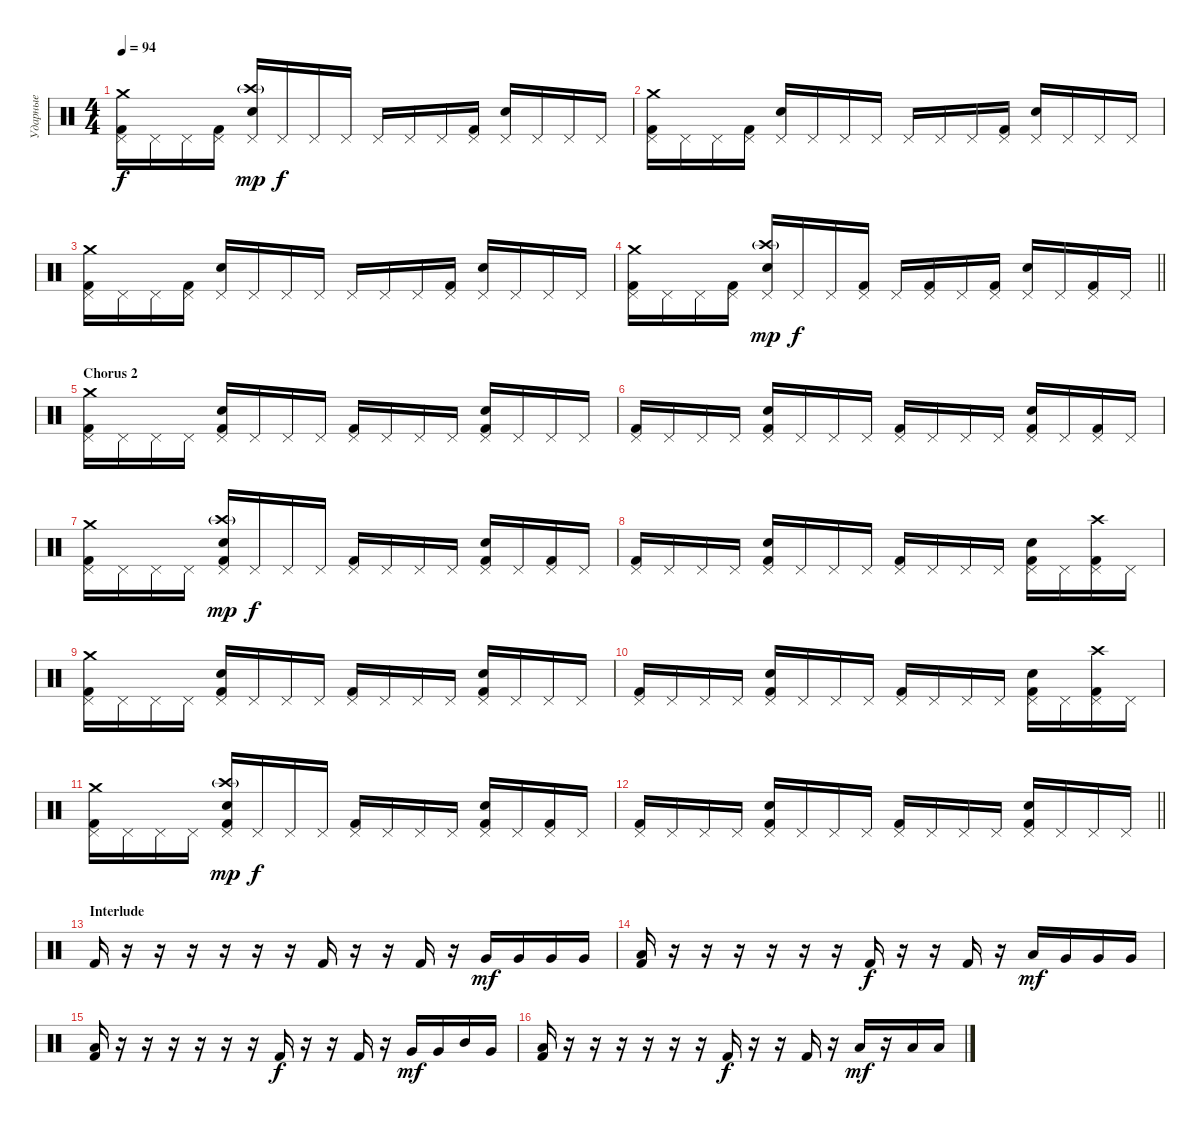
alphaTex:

\track ("Ударные" "Ударные") {instrument percussion}
\staff {score}
\articulation defaults
\ts (4 4)
\tempo 94
\clef neutral
\ks c
("Crash medium (hit)" "Pedal Hi-Hat (hit)" "Kick (hit) 2").16{dy f} "Pedal Hi-Hat (hit)".16 "Pedal Hi-Hat (hit)".16 ("Pedal Hi-Hat (hit)" "Kick (hit) 2").16 ("Crash high (hit)"{g} "Pedal Hi-Hat (hit)" "Snare (hit) 2").16{dy mp} "Pedal Hi-Hat (hit)".16{dy f} "Pedal Hi-Hat (hit)".16 "Pedal Hi-Hat (hit)".16 "Pedal Hi-Hat (hit)".16 "Pedal Hi-Hat (hit)".16 "Pedal Hi-Hat (hit)".16 ("Pedal Hi-Hat (hit)" "Kick (hit) 2").16 ("Pedal Hi-Hat (hit)" "Snare (hit) 2").16 "Pedal Hi-Hat (hit)".16 "Pedal Hi-Hat (hit)".16 "Pedal Hi-Hat (hit)".16 |
("Crash medium (hit)" "Pedal Hi-Hat (hit)" "Kick (hit) 2").16 "Pedal Hi-Hat (hit)".16 "Pedal Hi-Hat (hit)".16 ("Pedal Hi-Hat (hit)" "Kick (hit) 2").16 ("Pedal Hi-Hat (hit)" "Snare (hit) 2").16 "Pedal Hi-Hat (hit)".16 "Pedal Hi-Hat (hit)".16 "Pedal Hi-Hat (hit)".16 "Pedal Hi-Hat (hit)".16 "Pedal Hi-Hat (hit)".16 "Pedal Hi-Hat (hit)".16 ("Pedal Hi-Hat (hit)" "Kick (hit) 2").16 ("Pedal Hi-Hat (hit)" "Snare (hit) 2").16 "Pedal Hi-Hat (hit)".16 "Pedal Hi-Hat (hit)".16 "Pedal Hi-Hat (hit)".16 |
("Crash medium (hit)" "Pedal Hi-Hat (hit)" "Kick (hit) 2").16 "Pedal Hi-Hat (hit)".16 "Pedal Hi-Hat (hit)".16 ("Pedal Hi-Hat (hit)" "Kick (hit) 2").16 ("Pedal Hi-Hat (hit)" "Snare (hit) 2").16 "Pedal Hi-Hat (hit)".16 "Pedal Hi-Hat (hit)".16 "Pedal Hi-Hat (hit)".16 "Pedal Hi-Hat (hit)".16 "Pedal Hi-Hat (hit)".16 "Pedal Hi-Hat (hit)".16 ("Pedal Hi-Hat (hit)" "Kick (hit) 2").16 ("Pedal Hi-Hat (hit)" "Snare (hit) 2").16 "Pedal Hi-Hat (hit)".16 "Pedal Hi-Hat (hit)".16 "Pedal Hi-Hat (hit)".16 |
\barLineRight lightlight
("Crash medium (hit)" "Pedal Hi-Hat (hit)" "Kick (hit) 2").16 "Pedal Hi-Hat (hit)".16 "Pedal Hi-Hat (hit)".16 ("Pedal Hi-Hat (hit)" "Kick (hit) 2").16 ("Crash high (hit)"{g} "Pedal Hi-Hat (hit)" "Snare (hit) 2").16{dy mp} "Pedal Hi-Hat (hit)".16{dy f} "Pedal Hi-Hat (hit)".16 ("Pedal Hi-Hat (hit)" "Kick (hit) 2").16 "Pedal Hi-Hat (hit)".16 ("Pedal Hi-Hat (hit)" "Kick (hit) 2").16 "Pedal Hi-Hat (hit)".16 ("Pedal Hi-Hat (hit)" "Kick (hit) 2").16 ("Pedal Hi-Hat (hit)" "Snare (hit) 2").16 "Pedal Hi-Hat (hit)".16 ("Pedal Hi-Hat (hit)" "Kick (hit) 2").16 "Pedal Hi-Hat (hit)".16 |
\section ("" "Chorus 2")
("Crash medium (hit)" "Pedal Hi-Hat (hit)" "Kick (hit) 2").16 "Pedal Hi-Hat (hit)".16 "Pedal Hi-Hat (hit)".16 "Pedal Hi-Hat (hit)".16 ("Pedal Hi-Hat (hit)" "Snare (hit) 2" "Kick (hit) 2").16 "Pedal Hi-Hat (hit)".16 "Pedal Hi-Hat (hit)".16 "Pedal Hi-Hat (hit)".16 ("Pedal Hi-Hat (hit)" "Kick (hit) 2").16 "Pedal Hi-Hat (hit)".16 "Pedal Hi-Hat (hit)".16 "Pedal Hi-Hat (hit)".16 ("Pedal Hi-Hat (hit)" "Snare (hit) 2" "Kick (hit) 2").16 "Pedal Hi-Hat (hit)".16 "Pedal Hi-Hat (hit)".16 "Pedal Hi-Hat (hit)".16 |
("Pedal Hi-Hat (hit)" "Kick (hit) 2").16 "Pedal Hi-Hat (hit)".16 "Pedal Hi-Hat (hit)".16 "Pedal Hi-Hat (hit)".16 ("Pedal Hi-Hat (hit)" "Snare (hit) 2" "Kick (hit) 2").16 "Pedal Hi-Hat (hit)".16 "Pedal Hi-Hat (hit)".16 "Pedal Hi-Hat (hit)".16 ("Pedal Hi-Hat (hit)" "Kick (hit) 2").16 "Pedal Hi-Hat (hit)".16 "Pedal Hi-Hat (hit)".16 "Pedal Hi-Hat (hit)".16 ("Pedal Hi-Hat (hit)" "Snare (hit) 2" "Kick (hit) 2").16 "Pedal Hi-Hat (hit)".16 ("Pedal Hi-Hat (hit)" "Kick (hit) 2").16 "Pedal Hi-Hat (hit)".16 |
("Crash medium (hit)" "Pedal Hi-Hat (hit)" "Kick (hit) 2").16 "Pedal Hi-Hat (hit)".16 "Pedal Hi-Hat (hit)".16 "Pedal Hi-Hat (hit)".16 ("Crash high (hit)"{g} "Pedal Hi-Hat (hit)" "Snare (hit) 2" "Kick (hit) 2").16{dy mp} "Pedal Hi-Hat (hit)".16{dy f} "Pedal Hi-Hat (hit)".16 "Pedal Hi-Hat (hit)".16 ("Pedal Hi-Hat (hit)" "Kick (hit) 2").16 "Pedal Hi-Hat (hit)".16 "Pedal Hi-Hat (hit)".16 "Pedal Hi-Hat (hit)".16 ("Pedal Hi-Hat (hit)" "Snare (hit) 2" "Kick (hit) 2").16 "Pedal Hi-Hat (hit)".16 ("Pedal Hi-Hat (hit)" "Kick (hit) 2").16 "Pedal Hi-Hat (hit)".16 |
("Pedal Hi-Hat (hit)" "Kick (hit) 2").16 "Pedal Hi-Hat (hit)".16 "Pedal Hi-Hat (hit)".16 "Pedal Hi-Hat (hit)".16 ("Pedal Hi-Hat (hit)" "Snare (hit) 2" "Kick (hit) 2").16 "Pedal Hi-Hat (hit)".16 "Pedal Hi-Hat (hit)".16 "Pedal Hi-Hat (hit)".16 ("Pedal Hi-Hat (hit)" "Kick (hit) 2").16 "Pedal Hi-Hat (hit)".16 "Pedal Hi-Hat (hit)".16 "Pedal Hi-Hat (hit)".16 ("Pedal Hi-Hat (hit)" "Snare (hit) 2" "Kick (hit) 2").16 "Pedal Hi-Hat (hit)".16 ("Crash high (hit)" "Pedal Hi-Hat (hit)" "Kick (hit) 2").16 "Pedal Hi-Hat (hit)".16 |
("Crash medium (hit)" "Pedal Hi-Hat (hit)" "Kick (hit) 2").16 "Pedal Hi-Hat (hit)".16 "Pedal Hi-Hat (hit)".16 "Pedal Hi-Hat (hit)".16 ("Pedal Hi-Hat (hit)" "Snare (hit) 2" "Kick (hit) 2").16 "Pedal Hi-Hat (hit)".16 "Pedal Hi-Hat (hit)".16 "Pedal Hi-Hat (hit)".16 ("Pedal Hi-Hat (hit)" "Kick (hit) 2").16 "Pedal Hi-Hat (hit)".16 "Pedal Hi-Hat (hit)".16 "Pedal Hi-Hat (hit)".16 ("Pedal Hi-Hat (hit)" "Snare (hit) 2" "Kick (hit) 2").16 "Pedal Hi-Hat (hit)".16 "Pedal Hi-Hat (hit)".16 "Pedal Hi-Hat (hit)".16 |
("Pedal Hi-Hat (hit)" "Kick (hit) 2").16 "Pedal Hi-Hat (hit)".16 "Pedal Hi-Hat (hit)".16 "Pedal Hi-Hat (hit)".16 ("Pedal Hi-Hat (hit)" "Snare (hit) 2" "Kick (hit) 2").16 "Pedal Hi-Hat (hit)".16 "Pedal Hi-Hat (hit)".16 "Pedal Hi-Hat (hit)".16 ("Pedal Hi-Hat (hit)" "Kick (hit) 2").16 "Pedal Hi-Hat (hit)".16 "Pedal Hi-Hat (hit)".16 "Pedal Hi-Hat (hit)".16 ("Pedal Hi-Hat (hit)" "Snare (hit) 2" "Kick (hit) 2").16 "Pedal Hi-Hat (hit)".16 ("Crash high (hit)" "Pedal Hi-Hat (hit)" "Kick (hit) 2").16 "Pedal Hi-Hat (hit)".16 |
("Crash medium (hit)" "Pedal Hi-Hat (hit)" "Kick (hit) 2").16 "Pedal Hi-Hat (hit)".16 "Pedal Hi-Hat (hit)".16 "Pedal Hi-Hat (hit)".16 ("Crash high (hit)"{g} "Pedal Hi-Hat (hit)" "Snare (hit) 2" "Kick (hit) 2").16{dy mp} "Pedal Hi-Hat (hit)".16{dy f} "Pedal Hi-Hat (hit)".16 "Pedal Hi-Hat (hit)".16 ("Pedal Hi-Hat (hit)" "Kick (hit) 2").16 "Pedal Hi-Hat (hit)".16 "Pedal Hi-Hat (hit)".16 "Pedal Hi-Hat (hit)".16 ("Pedal Hi-Hat (hit)" "Snare (hit) 2" "Kick (hit) 2").16 "Pedal Hi-Hat (hit)".16 ("Pedal Hi-Hat (hit)" "Kick (hit) 2").16 "Pedal Hi-Hat (hit)".16 |
\barLineRight lightlight
("Pedal Hi-Hat (hit)" "Kick (hit) 2").16 "Pedal Hi-Hat (hit)".16 "Pedal Hi-Hat (hit)".16 "Pedal Hi-Hat (hit)".16 ("Pedal Hi-Hat (hit)" "Snare (hit) 2" "Kick (hit) 2").16 "Pedal Hi-Hat (hit)".16 "Pedal Hi-Hat (hit)".16 "Pedal Hi-Hat (hit)".16 ("Pedal Hi-Hat (hit)" "Kick (hit) 2").16 "Pedal Hi-Hat (hit)".16 "Pedal Hi-Hat (hit)".16 "Pedal Hi-Hat (hit)".16 ("Pedal Hi-Hat (hit)" "Snare (hit) 2" "Kick (hit) 2").16 "Pedal Hi-Hat (hit)".16 "Pedal Hi-Hat (hit)".16 "Pedal Hi-Hat (hit)".16 |
\section ("" "Interlude")
"Kick (hit) 2".16 r.16 r.16 r.16 r.16 r.16 r.16 "Kick (hit) 2".16 r.16 r.16 "Kick (hit) 2".16 r.16 "Very Low Tom (hit)".16{dy mf} "Very Low Tom (hit)".16 "Very Low Tom (hit)".16 "Very Low Tom (hit)".16 |
("Low Floor Tom (hit)" "Kick (hit) 2").16 r.16 r.16 r.16 r.16 r.16 r.16 "Kick (hit) 2".16{dy f} r.16 r.16 "Kick (hit) 2".16 r.16 "Low Tom (hit)".16{dy mf} "Very Low Tom (hit)".16 "Very Low Tom (hit)".16 "Very Low Tom (hit)".16 |
("Low Floor Tom (hit)" "Kick (hit) 2").16 r.16 r.16 r.16 r.16 r.16 r.16 "Kick (hit) 2".16{dy f} r.16 r.16 "Kick (hit) 2".16 r.16 "Very Low Tom (hit)".16{dy mf} "Very Low Tom (hit)".16 "Mid Tom (hit)".16 "Very Low Tom (hit)".16 |
("Low Floor Tom (hit)" "Kick (hit) 2").16 r.16 r.16 r.16 r.16 r.16 r.16 "Kick (hit) 2".16{dy f} r.16 r.16 "Kick (hit) 2".16 r.16 "Low Tom (hit)".16{dy mf} r.16 "Low Tom (hit)".16 "Low Tom (hit)".16
